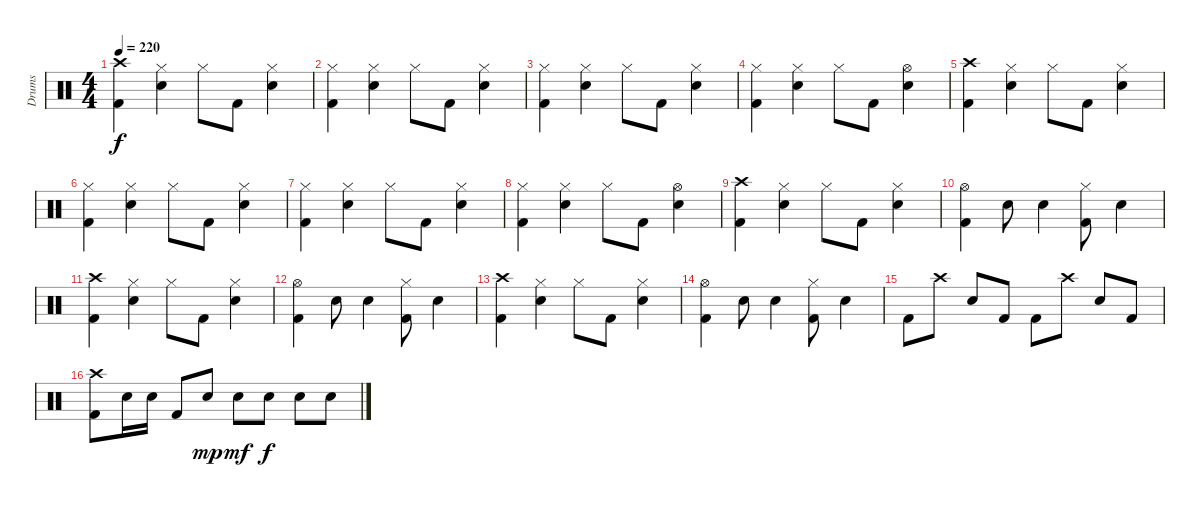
\track ("Drums" "Drums") {instrument percussion}
\staff {score}
\articulation defaults
\ts (4 4)
\tempo 220
\clef neutral
\ks c
("Crash high (hit)" "Kick (hit) 2").4{dy f} ("Hi-Hat (closed)" "Snare (hit) 2").4 "Hi-Hat (closed)".8 "Kick (hit) 2".8 ("Hi-Hat (closed)" "Snare (hit) 2").4 |
("Hi-Hat (closed)" "Kick (hit) 2").4 ("Hi-Hat (closed)" "Snare (hit) 2").4 "Hi-Hat (closed)".8 "Kick (hit) 2".8 ("Hi-Hat (closed)" "Snare (hit) 2").4 |
("Hi-Hat (closed)" "Kick (hit) 2").4 ("Hi-Hat (closed)" "Snare (hit) 2").4 "Hi-Hat (closed)".8 "Kick (hit) 2".8 ("Hi-Hat (closed)" "Snare (hit) 2").4 |
("Hi-Hat (closed)" "Kick (hit) 2").4 ("Hi-Hat (closed)" "Snare (hit) 2").4 "Hi-Hat (closed)".8 "Kick (hit) 2".8 ("Hi-Hat (open)" "Snare (hit) 2").4 |
("Crash high (hit)" "Kick (hit) 2").4 ("Hi-Hat (closed)" "Snare (hit) 2").4 "Hi-Hat (closed)".8 "Kick (hit) 2".8 ("Hi-Hat (closed)" "Snare (hit) 2").4 |
("Hi-Hat (closed)" "Kick (hit) 2").4 ("Hi-Hat (closed)" "Snare (hit) 2").4 "Hi-Hat (closed)".8 "Kick (hit) 2".8 ("Hi-Hat (closed)" "Snare (hit) 2").4 |
("Hi-Hat (closed)" "Kick (hit) 2").4 ("Hi-Hat (closed)" "Snare (hit) 2").4 "Hi-Hat (closed)".8 "Kick (hit) 2".8 ("Hi-Hat (closed)" "Snare (hit) 2").4 |
("Hi-Hat (closed)" "Kick (hit) 2").4 ("Hi-Hat (closed)" "Snare (hit) 2").4 "Hi-Hat (closed)".8 "Kick (hit) 2".8 ("Hi-Hat (open)" "Snare (hit) 2").4 |
("Crash high (hit)" "Kick (hit) 2").4 ("Hi-Hat (closed)" "Snare (hit) 2").4 "Hi-Hat (closed)".8 "Kick (hit) 2".8 ("Hi-Hat (closed)" "Snare (hit) 2").4 |
("Hi-Hat (open)" "Kick (hit) 2").4 "Snare (hit) 2".8 "Snare (hit) 2".4 ("Hi-Hat (closed)" "Kick (hit) 2").8 "Snare (hit) 2".4 |
("Crash high (hit)" "Kick (hit) 2").4 ("Hi-Hat (closed)" "Snare (hit) 2").4 "Hi-Hat (closed)".8 "Kick (hit) 2".8 ("Hi-Hat (closed)" "Snare (hit) 2").4 |
("Hi-Hat (open)" "Kick (hit) 2").4 "Snare (hit) 2".8 "Snare (hit) 2".4 ("Hi-Hat (closed)" "Kick (hit) 2").8 "Snare (hit) 2".4 |
("Crash high (hit)" "Kick (hit) 2").4 ("Hi-Hat (closed)" "Snare (hit) 2").4 "Hi-Hat (closed)".8 "Kick (hit) 2".8 ("Hi-Hat (closed)" "Snare (hit) 2").4 |
("Hi-Hat (open)" "Kick (hit) 2").4 "Snare (hit) 2".8 "Snare (hit) 2".4 ("Hi-Hat (closed)" "Kick (hit) 2").8 "Snare (hit) 2".4 |
"Kick (hit) 2".8 "Crash high (hit)".8 "Snare (hit) 2".8 "Kick (hit) 2".8 "Kick (hit) 2".8 "Crash high (hit)".8 "Snare (hit) 2".8 "Kick (hit) 2".8 |
("Crash high (hit)" "Kick (hit) 2").8 "Snare (hit) 2".16 "Snare (hit) 2".16 "Kick (hit) 2".8 "Snare (hit) 2".8{dy mp} "Snare (hit) 2".8{dy mf} "Snare (hit) 2".8{dy f} "Snare (hit) 2".8 "Snare (hit) 2".8
